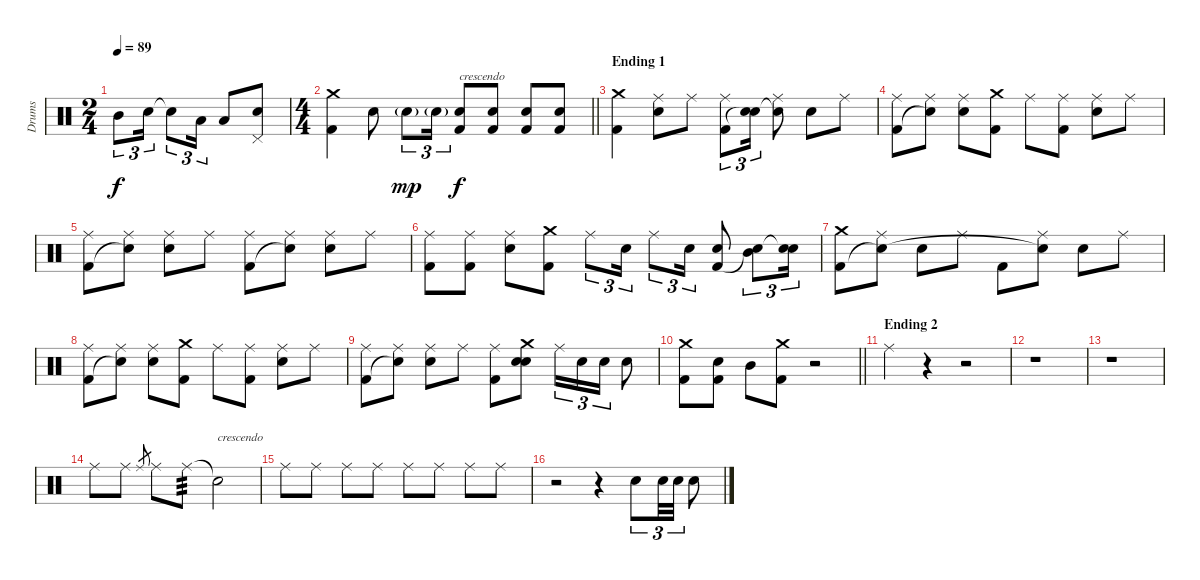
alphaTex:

\track ("Drums" "Drums") {instrument percussion}
\staff {score}
\articulation defaults
\ts (2 4)
\tempo 89
\clef neutral
\ks c "Mid Tom (hit)".8{tu (3 2) dy f} "Electric Snare (hit)".16{tu (3 2)} "Snare (hit)"{t}.8{tu (3 2)} "Low Floor Tom (hit)".16{tu (3 2)} "Low Floor Tom (hit)".8
("Pedal Hi-Hat (hit)" "Snare (hit)"{t}).8 |
\ts (4 4)
\barLineRight lightlight
("Crash medium (hit)" "Kick (hit) 2").4 "Electric Snare (hit)".8 "Electric Snare (hit)"{g}.8{tu (3 2) dy mp} "Electric Snare (hit)"{g}.16{tu (3 2)} ("Electric Snare (hit)" "Kick (hit) 2").8{txt "crescendo" dy f} ("Electric Snare (hit)" "Kick (hit) 2").8 ("Electric Snare (hit)" "Kick (hit) 2").8 ("Electric Snare (hit)" "Kick (hit) 2").8 |
\section ("" "Ending 1")
("Crash medium (hit)" "Kick (hit) 2").4 ("Ride (middle)" "Electric Snare (hit)").8 "Ride (middle)".8 ("Ride (middle)" "Kick (hit) 2").8{tu (3 2)} ("Electric Snare (hit)" "Snare (hit)"{t}).16{tu (3 2)} ("Ride (middle)" "Snare (hit)"{t}).8 "Electric Snare (hit)".8 "Ride (middle)".8 |
("Ride (middle)" "Kick (hit) 2").8 ("Ride (middle)" "Snare (hit)"{t}).8 ("Ride (middle)" "Electric Snare (hit)").8 ("Crash medium (hit)" "Kick (hit) 2").8 "Ride (middle)".8 ("Ride (middle)" "Kick (hit) 2").8 ("Ride (middle)" "Electric Snare (hit)").8 "Ride (middle)".8 |
("Ride (middle)" "Kick (hit) 2").8 ("Ride (middle)" "Snare (hit)"{t}).8 ("Ride (middle)" "Electric Snare (hit)").8 "Ride (middle)".8 ("Ride (middle)" "Kick (hit) 2").8 ("Ride (middle)" "Snare (hit)"{t}).8 ("Ride (middle)" "Electric Snare (hit)").8 "Ride (middle)".8 |
("Ride (middle)" "Kick (hit) 2").8 ("Ride (middle)" "Kick (hit) 2").8 ("Ride (middle)" "Electric Snare (hit)").8 ("Crash medium (hit)" "Kick (hit) 2").8 "Ride (middle)".8{tu (3 2)} "Electric Snare (hit)".16{tu (3 2)} "Ride (middle)".8{tu (3 2)} "Electric Snare (hit)".16{tu (3 2)} ("Electric Snare (hit)" "Kick (hit) 2").8 ("Mid Tom (hit)" "Snare (hit)"{t}).8{tu (3 2)} ("Electric Snare (hit)" "Snare (hit)"{t}).16{tu (3 2)} |
("Crash medium (hit)" "Kick (hit) 2").8 ("Ride (middle)" "Snare (hit)"{t}).8 "Electric Snare (hit)".8 "Ride (middle)".8 "Kick (hit) 2".8 ("Ride (middle)" "Snare (hit)"{t}).8 "Electric Snare (hit)".8 "Ride (middle)".8 |
("Ride (middle)" "Kick (hit) 2").8 ("Ride (middle)" "Snare (hit)"{t}).8 ("Ride (middle)" "Electric Snare (hit)").8 ("Crash medium (hit)" "Kick (hit) 2").8 "Ride (middle)".8 ("Ride (middle)" "Kick (hit) 2").8 ("Ride (middle)" "Electric Snare (hit)").8 "Ride (middle)".8 |
("Ride (middle)" "Kick (hit) 2").8 ("Ride (middle)" "Snare (hit)"{t}).8 ("Ride (middle)" "Electric Snare (hit)").8 "Ride (middle)".8 ("Ride (middle)" "Kick (hit) 2").8 ("Crash medium (hit)" "Electric Snare (hit)" "Snare (hit)").8 "Ride (middle)".16{tu (3 2)} "Electric Snare (hit)".16{tu (3 2)} "Electric Snare (hit)".16{tu (3 2)} "Electric Snare (hit)".8 |
\barLineRight lightlight
("Crash medium (hit)" "Kick (hit) 2").8 ("Electric Snare (hit)" "Kick (hit) 2").8 "Mid Tom (hit)".8 ("Crash medium (hit)" "Kick (hit) 2").8 r.2 |
\section ("" "Ending 2")
"Ride (middle)".4 r.4 r.2 |
r.1 |
r.1 |
"Ride (middle)".8 "Ride (middle)".8 "Ride (middle)".8{gr} "Ride (middle)".8 "Ride (middle)".8{tp 3} "Snare (hit)"{t}.2{txt "crescendo"} |
"Ride (middle)".8 "Ride (middle)".8 "Ride (middle)".8 "Ride (middle)".8 "Ride (middle)".8 "Ride (middle)".8 "Ride (middle)".8 "Ride (middle)".8 |
r.2 r.4 "Electric Snare (hit)".8{tu (3 2)} "Electric Snare (hit)".32{tu (3 2)} "Electric Snare (hit)".32{tu (3 2)} "Electric Snare (hit)".8
